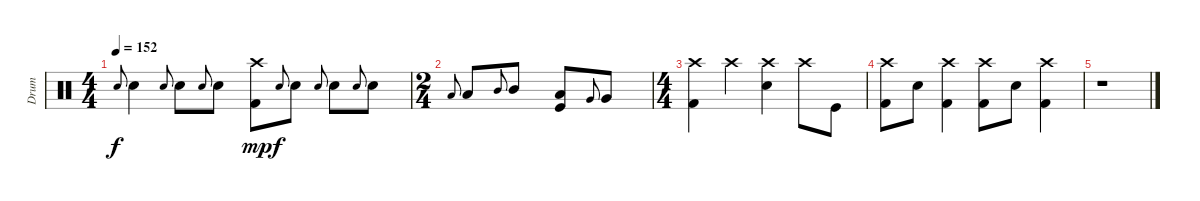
\track ("Drum" "Drum") {instrument percussion}
\staff {score}
\articulation defaults
\ts (4 4)
\tempo 152
\clef neutral
\ks c "Snare (hit) 2".8{gr onbeat dy f} "Snare (hit) 2".4 "Snare (hit) 2".8{gr onbeat} "Snare (hit) 2".8 "Snare (hit) 2".8{gr onbeat} "Snare (hit) 2".8
("Crash high (hit)" "Kick (hit) 2").8{dy mp} "Snare (hit) 2".8{gr onbeat dy f} "Snare (hit) 2".8 "Snare (hit) 2".8{gr onbeat} "Snare (hit) 2".8 "Snare (hit) 2".8{gr onbeat} "Snare (hit) 2".8 |
\ts (2 4)
"Low Tom (hit)".8{gr onbeat} "Low Tom (hit)".8 "Mid Tom (hit)".8{gr onbeat} "Mid Tom (hit)".8 ("Low Tom (hit)" "Kick (hit)").8 "Very Low Tom (hit)".8{gr onbeat} "Very Low Tom (hit)".8 |
\ts (4 4)
("Crash high (hit)" "Kick (hit) 2").4 "Crash high (hit)".4 ("Crash high (hit)" "Snare (hit) 2").4 "Crash high (hit)".8 "Kick (hit)".8 |
("Crash high (hit)" "Kick (hit) 2").8 "Snare (hit) 2".8 ("Crash high (hit)" "Kick (hit) 2").4 ("Crash high (hit)" "Kick (hit) 2").8 "Snare (hit) 2".8 ("Crash high (hit)" "Kick (hit) 2").4 |
r.1
